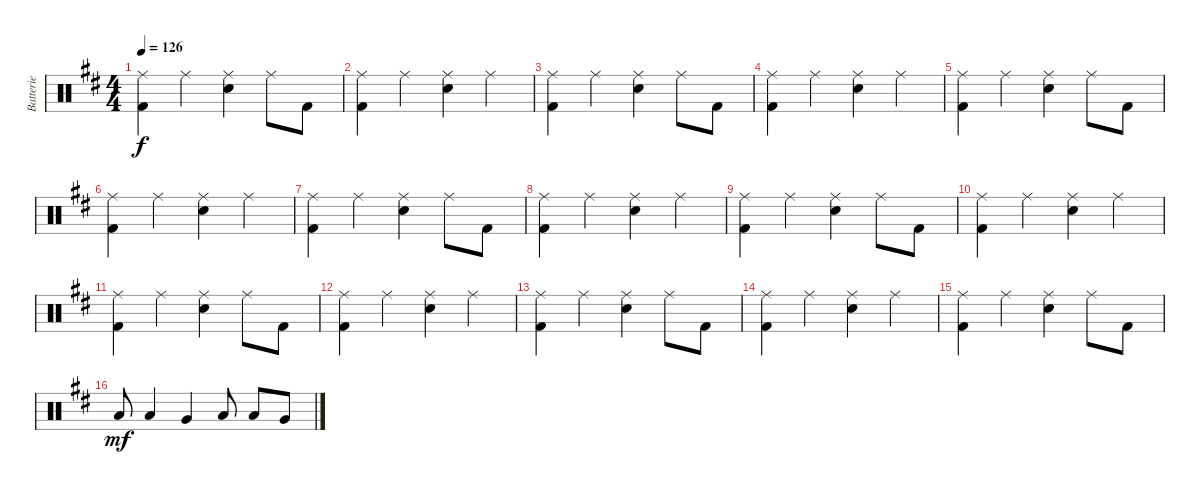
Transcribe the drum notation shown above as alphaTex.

\track ("Batterie" "Batterie") {instrument percussion}
\staff {score}
\articulation defaults
\ts (4 4)
\tempo 126
\clef neutral
\ks d
("Ride (middle)" "Kick (hit) 2").4{dy f} "Ride (middle)".4 ("Ride (middle)" "Snare (hit) 2").4 "Ride (middle)".8 "Kick (hit) 2".8 |
("Ride (middle)" "Kick (hit) 2").4 "Ride (middle)".4 ("Ride (middle)" "Snare (hit) 2").4 "Ride (middle)".4 |
("Ride (middle)" "Kick (hit) 2").4 "Ride (middle)".4 ("Ride (middle)" "Snare (hit) 2").4 "Ride (middle)".8 "Kick (hit) 2".8 |
("Ride (middle)" "Kick (hit) 2").4 "Ride (middle)".4 ("Ride (middle)" "Snare (hit) 2").4 "Ride (middle)".4 |
("Ride (middle)" "Kick (hit) 2").4 "Ride (middle)".4 ("Ride (middle)" "Snare (hit) 2").4 "Ride (middle)".8 "Kick (hit) 2".8 |
("Ride (middle)" "Kick (hit) 2").4 "Ride (middle)".4 ("Ride (middle)" "Snare (hit) 2").4 "Ride (middle)".4 |
("Ride (middle)" "Kick (hit) 2").4 "Ride (middle)".4 ("Ride (middle)" "Snare (hit) 2").4 "Ride (middle)".8 "Kick (hit) 2".8 |
("Ride (middle)" "Kick (hit) 2").4 "Ride (middle)".4 ("Ride (middle)" "Snare (hit) 2").4 "Ride (middle)".4 |
("Ride (middle)" "Kick (hit) 2").4 "Ride (middle)".4 ("Ride (middle)" "Snare (hit) 2").4 "Ride (middle)".8 "Kick (hit) 2".8 |
("Ride (middle)" "Kick (hit) 2").4 "Ride (middle)".4 ("Ride (middle)" "Snare (hit) 2").4 "Ride (middle)".4 |
("Ride (middle)" "Kick (hit) 2").4 "Ride (middle)".4 ("Ride (middle)" "Snare (hit) 2").4 "Ride (middle)".8 "Kick (hit) 2".8 |
("Ride (middle)" "Kick (hit) 2").4 "Ride (middle)".4 ("Ride (middle)" "Snare (hit) 2").4 "Ride (middle)".4 |
("Ride (middle)" "Kick (hit) 2").4 "Ride (middle)".4 ("Ride (middle)" "Snare (hit) 2").4 "Ride (middle)".8 "Kick (hit) 2".8 |
("Ride (middle)" "Kick (hit) 2").4 "Ride (middle)".4 ("Ride (middle)" "Snare (hit) 2").4 "Ride (middle)".4 |
("Ride (middle)" "Kick (hit) 2").4 "Ride (middle)".4 ("Ride (middle)" "Snare (hit) 2").4 "Ride (middle)".8 "Kick (hit) 2".8 |
"Low Tom (hit)".8{dy mf} "Low Tom (hit)".4 "Very Low Tom (hit)".4 "Low Floor Tom (hit)".8 "Low Floor Tom (hit)".8 "Very Low Tom (hit)".8
